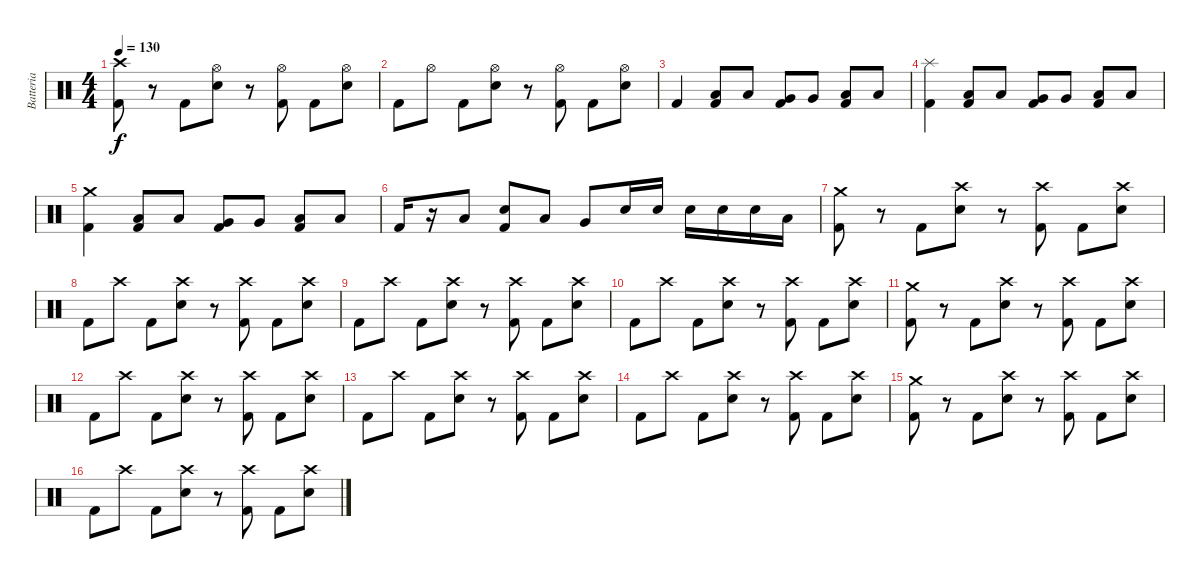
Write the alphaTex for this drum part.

\track ("Batteria" "Batteria") {instrument percussion}
\staff {score}
\articulation defaults
\ts (4 4)
\tempo 130
\clef neutral
\ks c
("Crash high (hit)" "Kick (hit) 2").8{dy f} r.8 "Kick (hit) 2".8 ("Hi-Hat (open)" "Electric Snare (hit)").8 r.8 ("Hi-Hat (open)" "Kick (hit) 2").8 "Kick (hit) 2".8 ("Hi-Hat (open)" "Electric Snare (hit)").8 |
"Kick (hit) 2".8 "Hi-Hat (open)".8 "Kick (hit) 2".8 ("Electric Snare (hit)" "Hi-Hat (open)").8 r.8 ("Kick (hit) 2" "Hi-Hat (open)").8 "Kick (hit) 2".8 ("Electric Snare (hit)" "Hi-Hat (open)").8 |
"Kick (hit) 2".4 ("Low Tom (hit)" "Kick (hit) 2").8 "Low Tom (hit)".8 ("Very Low Tom (hit)" "Kick (hit) 2").8 "Very Low Tom (hit)".8 ("Low Floor Tom (hit)" "Kick (hit) 2").8 "Low Floor Tom (hit)".8 |
("Splash (hit)" "Kick (hit) 2").4 ("Low Tom (hit)" "Kick (hit) 2").8 "Low Tom (hit)".8 ("Very Low Tom (hit)" "Kick (hit) 2").8 "Very Low Tom (hit)".8 ("Low Floor Tom (hit)" "Kick (hit) 2").8 "Low Floor Tom (hit)".8 |
("Crash medium (hit)" "Kick (hit) 2").4 ("Low Tom (hit)" "Kick (hit) 2").8 "Low Tom (hit)".8 ("Very Low Tom (hit)" "Kick (hit) 2").8 "Very Low Tom (hit)".8 ("Low Floor Tom (hit)" "Kick (hit) 2").8 "Low Floor Tom (hit)".8 |
"Kick (hit) 2".16 r.16 "Low Tom (hit)".8 ("Kick (hit) 2" "Electric Snare (hit)").8 "Low Tom (hit)".8 "Very Low Tom (hit)".8 "Electric Snare (hit)".16 "Electric Snare (hit)".16 "Electric Snare (hit)".16 "Electric Snare (hit)".16 "Electric Snare (hit)".16 "Low Tom (hit)".16 |
("Crash medium (hit)" "Kick (hit) 2").8 r.8 "Kick (hit) 2".8 ("Crash high (hit)" "Electric Snare (hit)").8 r.8 ("Crash high (hit)" "Kick (hit) 2").8 "Kick (hit) 2".8 ("Crash high (hit)" "Electric Snare (hit)").8 |
"Kick (hit) 2".8 "Crash high (hit)".8 "Kick (hit) 2".8 ("Electric Snare (hit)" "Crash high (hit)").8 r.8 ("Kick (hit) 2" "Crash high (hit)").8 "Kick (hit) 2".8 ("Electric Snare (hit)" "Crash high (hit)").8 |
"Kick (hit) 2".8 "Crash high (hit)".8 "Kick (hit) 2".8 ("Crash high (hit)" "Electric Snare (hit)").8 r.8 ("Crash high (hit)" "Kick (hit) 2").8 "Kick (hit) 2".8 ("Crash high (hit)" "Electric Snare (hit)").8 |
"Kick (hit) 2".8 "Crash high (hit)".8 "Kick (hit) 2".8 ("Electric Snare (hit)" "Crash high (hit)").8 r.8 ("Kick (hit) 2" "Crash high (hit)").8 "Kick (hit) 2".8 ("Electric Snare (hit)" "Crash high (hit)").8 |
("Crash medium (hit)" "Kick (hit) 2").8 r.8 "Kick (hit) 2".8 ("Crash high (hit)" "Electric Snare (hit)").8 r.8 ("Crash high (hit)" "Kick (hit) 2").8 "Kick (hit) 2".8 ("Crash high (hit)" "Electric Snare (hit)").8 |
"Kick (hit) 2".8 "Crash high (hit)".8 "Kick (hit) 2".8 ("Electric Snare (hit)" "Crash high (hit)").8 r.8 ("Kick (hit) 2" "Crash high (hit)").8 "Kick (hit) 2".8 ("Electric Snare (hit)" "Crash high (hit)").8 |
"Kick (hit) 2".8 "Crash high (hit)".8 "Kick (hit) 2".8 ("Crash high (hit)" "Electric Snare (hit)").8 r.8 ("Crash high (hit)" "Kick (hit) 2").8 "Kick (hit) 2".8 ("Crash high (hit)" "Electric Snare (hit)").8 |
"Kick (hit) 2".8 "Crash high (hit)".8 "Kick (hit) 2".8 ("Electric Snare (hit)" "Crash high (hit)").8 r.8 ("Crash high (hit)" "Kick (hit) 2").8 "Kick (hit) 2".8 ("Crash high (hit)" "Electric Snare (hit)").8 |
("Crash medium (hit)" "Kick (hit) 2").8 r.8 "Kick (hit) 2".8 ("Crash high (hit)" "Electric Snare (hit)").8 r.8 ("Crash high (hit)" "Kick (hit) 2").8 "Kick (hit) 2".8 ("Crash high (hit)" "Electric Snare (hit)").8 |
"Kick (hit) 2".8 "Crash high (hit)".8 "Kick (hit) 2".8 ("Electric Snare (hit)" "Crash high (hit)").8 r.8 ("Kick (hit) 2" "Crash high (hit)").8 "Kick (hit) 2".8 ("Electric Snare (hit)" "Crash high (hit)").8
